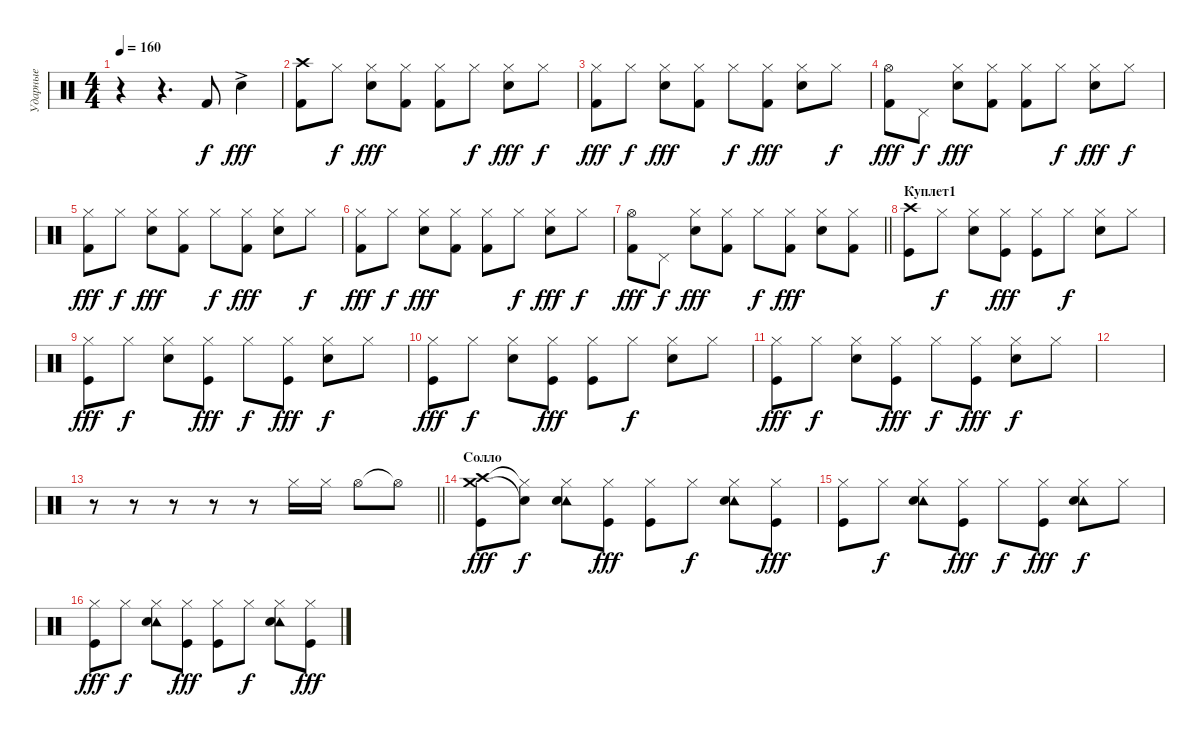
\track ("Ударные" "Ударные") {instrument percussion}
\staff {score}
\articulation defaults
\ts (4 4)
\tempo 160
\clef neutral
\ks c
r.4{dy f} r.4{d} "Kick (hit) 2".8 "Snare (hit) 2"{ac}.4{dy fff} |
("Crash high (hit)" "Kick (hit) 2").8 "Hi-Hat (closed)".8{dy f} ("Hi-Hat (closed)" "Snare (hit) 2").8{dy fff} ("Hi-Hat (closed)" "Kick (hit) 2").8 ("Hi-Hat (closed)" "Kick (hit) 2").8 "Hi-Hat (closed)".8{dy f} ("Hi-Hat (closed)" "Snare (hit) 2").8{dy fff} "Hi-Hat (closed)".8{dy f} |
("Hi-Hat (closed)" "Kick (hit) 2").8{dy fff} "Hi-Hat (closed)".8{dy f} ("Hi-Hat (closed)" "Snare (hit) 2").8{dy fff} ("Hi-Hat (closed)" "Kick (hit) 2").8 "Hi-Hat (closed)".8{dy f} ("Hi-Hat (closed)" "Kick (hit) 2").8{dy fff} ("Hi-Hat (closed)" "Snare (hit) 2").8 "Hi-Hat (closed)".8{dy f} |
("Hi-Hat (open)" "Kick (hit) 2").8{dy fff} "Pedal Hi-Hat (hit)".8{dy f} ("Hi-Hat (closed)" "Snare (hit) 2").8{dy fff} ("Hi-Hat (closed)" "Kick (hit) 2").8 ("Hi-Hat (closed)" "Kick (hit) 2").8 "Hi-Hat (closed)".8{dy f} ("Hi-Hat (closed)" "Snare (hit) 2").8{dy fff} "Hi-Hat (closed)".8{dy f} |
("Hi-Hat (closed)" "Kick (hit) 2").8{dy fff} "Hi-Hat (closed)".8{dy f} ("Hi-Hat (closed)" "Snare (hit) 2").8{dy fff} ("Hi-Hat (closed)" "Kick (hit) 2").8 "Hi-Hat (closed)".8{dy f} ("Hi-Hat (closed)" "Kick (hit) 2").8{dy fff} ("Hi-Hat (closed)" "Snare (hit) 2").8 "Hi-Hat (closed)".8{dy f} |
("Hi-Hat (closed)" "Kick (hit) 2").8{dy fff} "Hi-Hat (closed)".8{dy f} ("Hi-Hat (closed)" "Snare (hit) 2").8{dy fff} ("Hi-Hat (closed)" "Kick (hit) 2").8 ("Hi-Hat (closed)" "Kick (hit) 2").8 "Hi-Hat (closed)".8{dy f} ("Hi-Hat (closed)" "Snare (hit) 2").8{dy fff} "Hi-Hat (closed)".8{dy f} |
\barLineRight lightlight
("Hi-Hat (open)" "Kick (hit) 2").8{dy fff} "Pedal Hi-Hat (hit)".8{dy f} ("Hi-Hat (closed)" "Snare (hit) 2").8{dy fff} ("Hi-Hat (closed)" "Kick (hit) 2").8 "Hi-Hat (closed)".8{dy f} ("Hi-Hat (closed)" "Kick (hit) 2").8{dy fff} ("Hi-Hat (closed)" "Snare (hit) 2").8 ("Hi-Hat (closed)" "Kick (hit) 2").8 |
\section ("" "Куплет1")
("Crash high (hit)" "Kick (hit)").8 "Hi-Hat (closed)".8{dy f} ("Hi-Hat (closed)" "Snare (hit) 2").8 ("Hi-Hat (closed)" "Kick (hit)").8{dy fff} ("Hi-Hat (closed)" "Kick (hit)").8 "Hi-Hat (closed)".8{dy f} ("Hi-Hat (closed)" "Snare (hit) 2").8 "Hi-Hat (closed)".8 |
("Hi-Hat (closed)" "Kick (hit)").8{dy fff} "Hi-Hat (closed)".8{dy f} ("Hi-Hat (closed)" "Snare (hit) 2").8 ("Hi-Hat (closed)" "Kick (hit)").8{dy fff} "Hi-Hat (closed)".8{dy f} ("Hi-Hat (closed)" "Kick (hit)").8{dy fff} ("Hi-Hat (closed)" "Snare (hit) 2").8{dy f} "Hi-Hat (closed)".8 |
("Hi-Hat (closed)" "Kick (hit)").8{dy fff} "Hi-Hat (closed)".8{dy f} ("Hi-Hat (closed)" "Snare (hit) 2").8 ("Hi-Hat (closed)" "Kick (hit)").8{dy fff} ("Hi-Hat (closed)" "Kick (hit)").8 "Hi-Hat (closed)".8{dy f} ("Hi-Hat (closed)" "Snare (hit) 2").8 "Hi-Hat (closed)".8 |
("Hi-Hat (closed)" "Kick (hit)").8{dy fff} "Hi-Hat (closed)".8{dy f} ("Hi-Hat (closed)" "Snare (hit) 2").8 ("Hi-Hat (closed)" "Kick (hit)").8{dy fff} "Hi-Hat (closed)".8{dy f} ("Hi-Hat (closed)" "Kick (hit)").8{dy fff} ("Hi-Hat (closed)" "Snare (hit) 2").8{dy f} "Hi-Hat (closed)".8 |
|
\barLineRight lightlight
r.8 r.8 r.8 r.8 r.8 "Hi-Hat (closed)".16 "Hi-Hat (closed)".16 "Hi-Hat (open)".8 "Hi-Hat (open)"{t}.8 |
\section ("" "Солло")
("Crash high (hit)" "Crash medium (hit)" "Kick (hit)").8{dy fff} ("Hi-Hat (closed)"{t} "Snare (hit)"{t}).8{dy f} ("Hi-Hat (closed)" "Tambourine (hit)" "Snare (hit) 2").8 ("Hi-Hat (closed)" "Kick (hit)").8{dy fff} ("Hi-Hat (closed)" "Kick (hit)").8 "Hi-Hat (closed)".8{dy f} ("Hi-Hat (closed)" "Tambourine (hit)" "Snare (hit) 2").8 ("Hi-Hat (closed)" "Kick (hit)").8{dy fff} |
("Hi-Hat (closed)" "Kick (hit)").8 "Hi-Hat (closed)".8{dy f} ("Hi-Hat (closed)" "Tambourine (hit)" "Snare (hit) 2").8 ("Hi-Hat (closed)" "Kick (hit)").8{dy fff} "Hi-Hat (closed)".8{dy f} ("Hi-Hat (closed)" "Kick (hit)").8{dy fff} ("Hi-Hat (closed)" "Tambourine (hit)" "Snare (hit) 2").8{dy f} "Hi-Hat (closed)".8 |
("Hi-Hat (closed)" "Kick (hit)").8{dy fff} "Hi-Hat (closed)".8{dy f} ("Hi-Hat (closed)" "Tambourine (hit)" "Snare (hit) 2").8 ("Hi-Hat (closed)" "Kick (hit)").8{dy fff} ("Hi-Hat (closed)" "Kick (hit)").8 "Hi-Hat (closed)".8{dy f} ("Hi-Hat (closed)" "Tambourine (hit)" "Snare (hit) 2").8 ("Hi-Hat (closed)" "Kick (hit)").8{dy fff}
